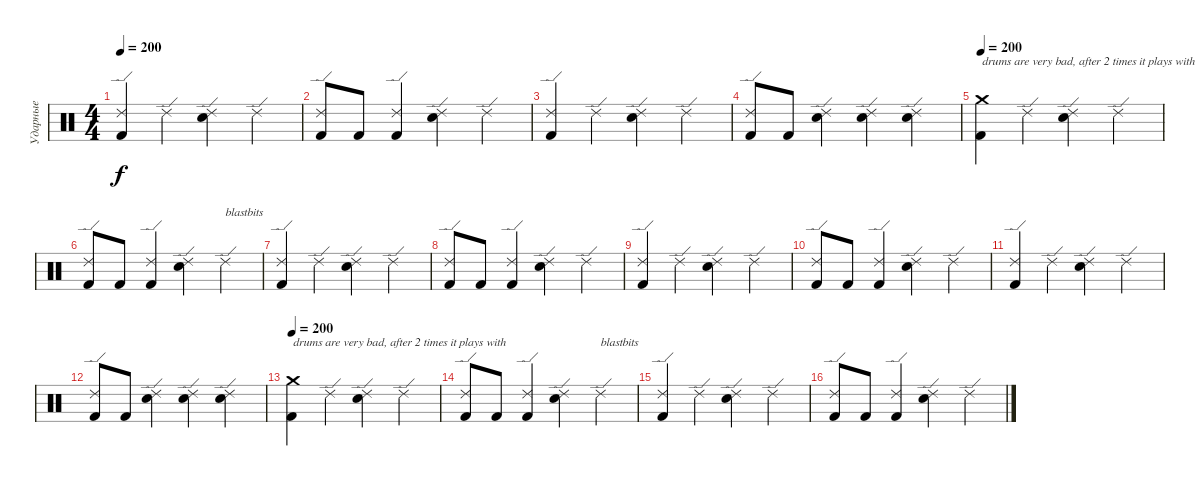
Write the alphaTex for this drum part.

\track ("Ударные" "Ударные") {instrument percussion}
\staff {score}
\articulation defaults
\ts (4 4)
\tempo 200
\clef neutral
\ks c
("Ride (edge) 2" "Kick (hit) 2").4{dy f} "Ride (edge) 2".4 ("Ride (edge) 2" "Snare (hit) 2").4 "Ride (edge) 2".4 |
("Ride (edge) 2" "Kick (hit) 2").8 "Kick (hit) 2".8 ("Ride (edge) 2" "Kick (hit) 2").4 ("Ride (edge) 2" "Snare (hit) 2").4 "Ride (edge) 2".4 |
("Ride (edge) 2" "Kick (hit) 2").4 "Ride (edge) 2".4 ("Ride (edge) 2" "Snare (hit) 2").4 "Ride (edge) 2".4 |
("Ride (edge) 2" "Kick (hit) 2").8 "Kick (hit) 2".8 ("Ride (edge) 2" "Snare (hit) 2").4 ("Ride (edge) 2" "Snare (hit) 2").4 ("Ride (edge) 2" "Snare (hit) 2").4 |
\tempo 200
("Crash medium (hit)" "Kick (hit) 2").4{txt "drums are very bad, after 2 times it plays with "} "Ride (edge) 2".4 ("Ride (edge) 2" "Snare (hit) 2").4 "Ride (edge) 2".4 |
("Ride (edge) 2" "Kick (hit) 2").8 "Kick (hit) 2".8 ("Ride (edge) 2" "Kick (hit) 2").4 ("Ride (edge) 2" "Snare (hit) 2").4 "Ride (edge) 2".4{txt "blastbits"} |
("Ride (edge) 2" "Kick (hit) 2").4 "Ride (edge) 2".4 ("Ride (edge) 2" "Snare (hit) 2").4 "Ride (edge) 2".4 |
("Ride (edge) 2" "Kick (hit) 2").8 "Kick (hit) 2".8 ("Ride (edge) 2" "Kick (hit) 2").4 ("Ride (edge) 2" "Snare (hit) 2").4 "Ride (edge) 2".4 |
("Ride (edge) 2" "Kick (hit) 2").4 "Ride (edge) 2".4 ("Ride (edge) 2" "Snare (hit) 2").4 "Ride (edge) 2".4 |
("Ride (edge) 2" "Kick (hit) 2").8 "Kick (hit) 2".8 ("Ride (edge) 2" "Kick (hit) 2").4 ("Ride (edge) 2" "Snare (hit) 2").4 "Ride (edge) 2".4 |
("Ride (edge) 2" "Kick (hit) 2").4 "Ride (edge) 2".4 ("Ride (edge) 2" "Snare (hit) 2").4 "Ride (edge) 2".4 |
("Ride (edge) 2" "Kick (hit) 2").8 "Kick (hit) 2".8 ("Ride (edge) 2" "Snare (hit) 2").4 ("Ride (edge) 2" "Snare (hit) 2").4 ("Ride (edge) 2" "Snare (hit) 2").4 |
\tempo 200
("Crash medium (hit)" "Kick (hit) 2").4{txt "drums are very bad, after 2 times it plays with "} "Ride (edge) 2".4 ("Ride (edge) 2" "Snare (hit) 2").4 "Ride (edge) 2".4 |
("Ride (edge) 2" "Kick (hit) 2").8 "Kick (hit) 2".8 ("Ride (edge) 2" "Kick (hit) 2").4 ("Ride (edge) 2" "Snare (hit) 2").4 "Ride (edge) 2".4{txt "blastbits"} |
("Ride (edge) 2" "Kick (hit) 2").4 "Ride (edge) 2".4 ("Ride (edge) 2" "Snare (hit) 2").4 "Ride (edge) 2".4 |
("Ride (edge) 2" "Kick (hit) 2").8 "Kick (hit) 2".8 ("Ride (edge) 2" "Kick (hit) 2").4 ("Ride (edge) 2" "Snare (hit) 2").4 "Ride (edge) 2".4
